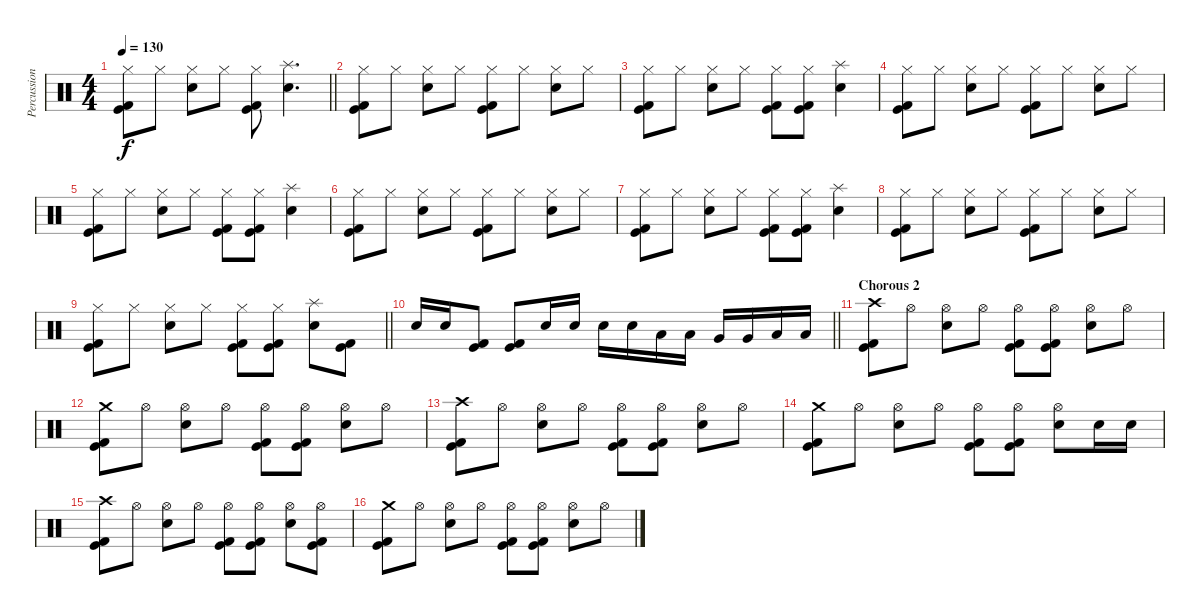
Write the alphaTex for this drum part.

\track ("Percussion" "Percussion") {instrument percussion}
\staff {score}
\articulation defaults
\ts (4 4)
\tempo 130
\clef neutral
\barLineRight lightlight
\ks c
("Hi-Hat (closed)" "Kick (hit)" "Kick (hit) 2").8{dy f} "Hi-Hat (closed)".8 ("Hi-Hat (closed)" "Electric Snare (hit)").8 "Hi-Hat (closed)".8 ("Hi-Hat (closed)" "Kick (hit)" "Kick (hit) 2").8 ("Splash (hit)" "Electric Snare (hit)").4{d} |
\section ("" "")
("Hi-Hat (closed)" "Kick (hit)" "Kick (hit) 2").8 "Hi-Hat (closed)".8 ("Hi-Hat (closed)" "Electric Snare (hit)").8 "Hi-Hat (closed)".8 ("Hi-Hat (closed)" "Kick (hit)" "Kick (hit) 2").8 "Hi-Hat (closed)".8 ("Hi-Hat (closed)" "Electric Snare (hit)").8 "Hi-Hat (closed)".8 |
("Hi-Hat (closed)" "Kick (hit)" "Kick (hit) 2").8 "Hi-Hat (closed)".8 ("Hi-Hat (closed)" "Electric Snare (hit)").8 "Hi-Hat (closed)".8 ("Hi-Hat (closed)" "Kick (hit)" "Kick (hit) 2").8 ("Hi-Hat (closed)" "Kick (hit)" "Kick (hit) 2").8 ("Splash (hit)" "Electric Snare (hit)").4 |
("Hi-Hat (closed)" "Kick (hit)" "Kick (hit) 2").8 "Hi-Hat (closed)".8 ("Hi-Hat (closed)" "Electric Snare (hit)").8 "Hi-Hat (closed)".8 ("Hi-Hat (closed)" "Kick (hit)" "Kick (hit) 2").8 "Hi-Hat (closed)".8 ("Hi-Hat (closed)" "Electric Snare (hit)").8 "Hi-Hat (closed)".8 |
("Hi-Hat (closed)" "Kick (hit)" "Kick (hit) 2").8 "Hi-Hat (closed)".8 ("Hi-Hat (closed)" "Electric Snare (hit)").8 "Hi-Hat (closed)".8 ("Hi-Hat (closed)" "Kick (hit)" "Kick (hit) 2").8 ("Hi-Hat (closed)" "Kick (hit)" "Kick (hit) 2").8 ("Splash (hit)" "Electric Snare (hit)").4 |
("Hi-Hat (closed)" "Kick (hit)" "Kick (hit) 2").8 "Hi-Hat (closed)".8 ("Hi-Hat (closed)" "Electric Snare (hit)").8 "Hi-Hat (closed)".8 ("Hi-Hat (closed)" "Kick (hit)" "Kick (hit) 2").8 "Hi-Hat (closed)".8 ("Hi-Hat (closed)" "Electric Snare (hit)").8 "Hi-Hat (closed)".8 |
("Hi-Hat (closed)" "Kick (hit)" "Kick (hit) 2").8 "Hi-Hat (closed)".8 ("Hi-Hat (closed)" "Electric Snare (hit)").8 "Hi-Hat (closed)".8 ("Hi-Hat (closed)" "Kick (hit)" "Kick (hit) 2").8 ("Hi-Hat (closed)" "Kick (hit)" "Kick (hit) 2").8 ("Splash (hit)" "Electric Snare (hit)").4 |
("Hi-Hat (closed)" "Kick (hit)" "Kick (hit) 2").8 "Hi-Hat (closed)".8 ("Hi-Hat (closed)" "Electric Snare (hit)").8 "Hi-Hat (closed)".8 ("Hi-Hat (closed)" "Kick (hit)" "Kick (hit) 2").8 "Hi-Hat (closed)".8 ("Hi-Hat (closed)" "Electric Snare (hit)").8 "Hi-Hat (closed)".8 |
\barLineRight lightlight
("Hi-Hat (closed)" "Kick (hit)" "Kick (hit) 2").8 "Hi-Hat (closed)".8 ("Hi-Hat (closed)" "Electric Snare (hit)").8 "Hi-Hat (closed)".8 ("Hi-Hat (closed)" "Kick (hit)" "Kick (hit) 2").8 ("Hi-Hat (closed)" "Kick (hit)" "Kick (hit) 2").8 ("Splash (hit)" "Electric Snare (hit)").8 ("Kick (hit)" "Kick (hit) 2").8 |
\section ("" "")
\barLineRight lightlight "Electric Snare (hit)".16 "Electric Snare (hit)".16
("Kick (hit)" "Kick (hit) 2").8 ("Kick (hit)" "Kick (hit) 2").8 "Electric Snare (hit)".16 "Electric Snare (hit)".16 "Electric Snare (hit)".16 "Electric Snare (hit)".16 "Low Tom (hit)".16 "Low Tom (hit)".16 "Very Low Tom (hit)".16 "Very Low Tom (hit)".16 "Low Floor Tom (hit)".16 "Low Floor Tom (hit)".16 |
\section ("" "Chorous 2")
("Crash high (hit)" "Kick (hit)" "Kick (hit) 2").8 "Hi-Hat (open)".8 ("Hi-Hat (open)" "Electric Snare (hit)").8 "Hi-Hat (open)".8 ("Hi-Hat (open)" "Kick (hit)" "Kick (hit) 2").8 ("Hi-Hat (open)" "Kick (hit)" "Kick (hit) 2").8 ("Hi-Hat (open)" "Electric Snare (hit)").8 "Hi-Hat (open)".8 |
("Crash medium (hit)" "Kick (hit)" "Kick (hit) 2").8 "Hi-Hat (open)".8 ("Hi-Hat (open)" "Electric Snare (hit)").8 "Hi-Hat (open)".8 ("Hi-Hat (open)" "Kick (hit)" "Kick (hit) 2").8 ("Hi-Hat (open)" "Kick (hit)" "Kick (hit) 2").8 ("Hi-Hat (open)" "Electric Snare (hit)").8 "Hi-Hat (open)".8 |
("Crash high (hit)" "Kick (hit)" "Kick (hit) 2").8 "Hi-Hat (open)".8 ("Hi-Hat (open)" "Electric Snare (hit)").8 "Hi-Hat (open)".8 ("Hi-Hat (open)" "Kick (hit)" "Kick (hit) 2").8 ("Hi-Hat (open)" "Kick (hit)" "Kick (hit) 2").8 ("Hi-Hat (open)" "Electric Snare (hit)").8 "Hi-Hat (open)".8 |
("Crash medium (hit)" "Kick (hit)" "Kick (hit) 2").8 "Hi-Hat (open)".8 ("Hi-Hat (open)" "Electric Snare (hit)").8 "Hi-Hat (open)".8 ("Hi-Hat (open)" "Kick (hit)" "Kick (hit) 2").8 ("Hi-Hat (open)" "Kick (hit)" "Kick (hit) 2").8 ("Hi-Hat (open)" "Electric Snare (hit)").8 "Electric Snare (hit)".16 "Electric Snare (hit)".16 |
("Crash high (hit)" "Kick (hit)" "Kick (hit) 2").8 "Hi-Hat (open)".8 ("Hi-Hat (open)" "Electric Snare (hit)").8 "Hi-Hat (open)".8 ("Hi-Hat (open)" "Kick (hit)" "Kick (hit) 2").8 ("Hi-Hat (open)" "Kick (hit)" "Kick (hit) 2").8 ("Hi-Hat (open)" "Electric Snare (hit)").8 ("Hi-Hat (open)" "Kick (hit)" "Kick (hit) 2").8 |
("Crash medium (hit)" "Kick (hit)" "Kick (hit) 2").8 "Hi-Hat (open)".8 ("Hi-Hat (open)" "Electric Snare (hit)").8 "Hi-Hat (open)".8 ("Hi-Hat (open)" "Kick (hit)" "Kick (hit) 2").8 ("Hi-Hat (open)" "Kick (hit)" "Kick (hit) 2").8 ("Hi-Hat (open)" "Electric Snare (hit)").8 "Hi-Hat (open)".8
